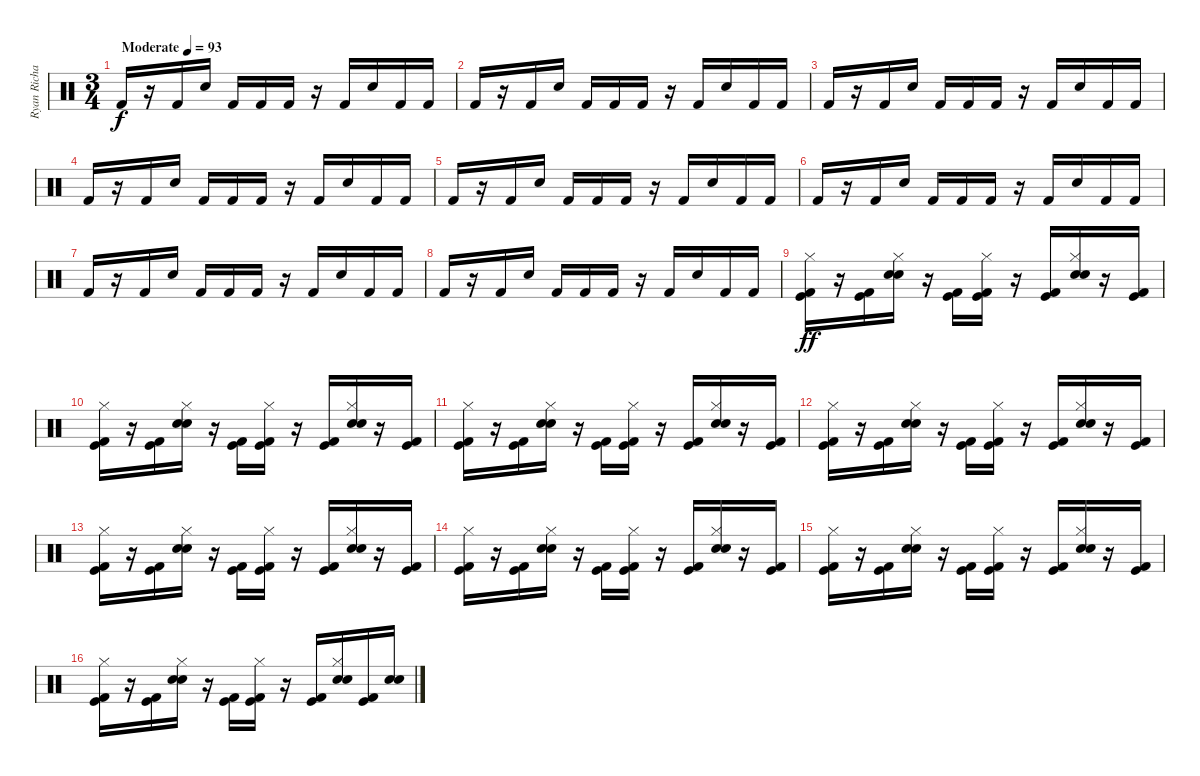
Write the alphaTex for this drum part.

\track ("Ryan Richards" "Ryan Richa") {instrument percussion}
\staff {score}
\articulation defaults
\ts (3 4)
\tempo (93 "Moderate")
\clef neutral
\ks c "Kick (hit) 2".16{dy f volume 9}
r.16 "Kick (hit) 2".16 "Electric Snare (hit)".16 "Kick (hit) 2".16 "Kick (hit) 2".16 "Kick (hit) 2".16 r.16 "Kick (hit) 2".16 "Electric Snare (hit)".16 "Kick (hit) 2".16 "Kick (hit) 2".16 |
"Kick (hit) 2".16 r.16 "Kick (hit) 2".16 "Electric Snare (hit)".16 "Kick (hit) 2".16 "Kick (hit) 2".16 "Kick (hit) 2".16 r.16 "Kick (hit) 2".16 "Electric Snare (hit)".16 "Kick (hit) 2".16 "Kick (hit) 2".16 |
"Kick (hit) 2".16 r.16 "Kick (hit) 2".16 "Electric Snare (hit)".16 "Kick (hit) 2".16 "Kick (hit) 2".16 "Kick (hit) 2".16 r.16 "Kick (hit) 2".16 "Electric Snare (hit)".16 "Kick (hit) 2".16 "Kick (hit) 2".16 |
"Kick (hit) 2".16 r.16 "Kick (hit) 2".16 "Electric Snare (hit)".16 "Kick (hit) 2".16 "Kick (hit) 2".16 "Kick (hit) 2".16 r.16 "Kick (hit) 2".16 "Electric Snare (hit)".16 "Kick (hit) 2".16 "Kick (hit) 2".16 |
"Kick (hit) 2".16 r.16 "Kick (hit) 2".16 "Electric Snare (hit)".16 "Kick (hit) 2".16 "Kick (hit) 2".16 "Kick (hit) 2".16 r.16 "Kick (hit) 2".16 "Electric Snare (hit)".16 "Kick (hit) 2".16 "Kick (hit) 2".16 |
"Kick (hit) 2".16 r.16 "Kick (hit) 2".16 "Electric Snare (hit)".16 "Kick (hit) 2".16 "Kick (hit) 2".16 "Kick (hit) 2".16 r.16 "Kick (hit) 2".16 "Electric Snare (hit)".16 "Kick (hit) 2".16 "Kick (hit) 2".16 |
"Kick (hit) 2".16 r.16 "Kick (hit) 2".16 "Electric Snare (hit)".16 "Kick (hit) 2".16 "Kick (hit) 2".16 "Kick (hit) 2".16 r.16 "Kick (hit) 2".16 "Electric Snare (hit)".16 "Kick (hit) 2".16 "Kick (hit) 2".16 |
"Kick (hit) 2".16 r.16 "Kick (hit) 2".16 "Electric Snare (hit)".16 "Kick (hit) 2".16 "Kick (hit) 2".16 "Kick (hit) 2".16 r.16 "Kick (hit) 2".16 "Electric Snare (hit)".16 "Kick (hit) 2".16 "Kick (hit) 2".16 |
("Kick (hit)" "Hi-Hat (closed)" "Kick (hit) 2").16{dy ff volume 12} r.16 ("Kick (hit)" "Kick (hit) 2").16 ("Snare (hit) 2" "Hi-Hat (closed)" "Electric Snare (hit)").16 r.16 ("Kick (hit)" "Kick (hit) 2").16 ("Kick (hit)" "Hi-Hat (closed)" "Kick (hit) 2").16 r.16 ("Kick (hit)" "Kick (hit) 2").16 ("Snare (hit) 2" "Hi-Hat (closed)" "Electric Snare (hit)").16 r.16 ("Kick (hit)" "Kick (hit) 2").16 |
("Kick (hit)" "Hi-Hat (closed)" "Kick (hit) 2").16 r.16 ("Kick (hit)" "Kick (hit) 2").16 ("Snare (hit) 2" "Hi-Hat (closed)" "Electric Snare (hit)").16 r.16 ("Kick (hit)" "Kick (hit) 2").16 ("Kick (hit)" "Hi-Hat (closed)" "Kick (hit) 2").16 r.16 ("Kick (hit)" "Kick (hit) 2").16 ("Snare (hit) 2" "Hi-Hat (closed)" "Electric Snare (hit)").16 r.16 ("Kick (hit)" "Kick (hit) 2").16 |
("Kick (hit)" "Hi-Hat (closed)" "Kick (hit) 2").16 r.16 ("Kick (hit)" "Kick (hit) 2").16 ("Snare (hit) 2" "Hi-Hat (closed)" "Electric Snare (hit)").16 r.16 ("Kick (hit)" "Kick (hit) 2").16 ("Kick (hit)" "Hi-Hat (closed)" "Kick (hit) 2").16 r.16 ("Kick (hit)" "Kick (hit) 2").16 ("Snare (hit) 2" "Hi-Hat (closed)" "Electric Snare (hit)").16 r.16 ("Kick (hit)" "Kick (hit) 2").16 |
("Kick (hit)" "Hi-Hat (closed)" "Kick (hit) 2").16 r.16 ("Kick (hit)" "Kick (hit) 2").16 ("Snare (hit) 2" "Hi-Hat (closed)" "Electric Snare (hit)").16 r.16 ("Kick (hit)" "Kick (hit) 2").16 ("Kick (hit)" "Hi-Hat (closed)" "Kick (hit) 2").16 r.16 ("Kick (hit)" "Kick (hit) 2").16 ("Snare (hit) 2" "Hi-Hat (closed)" "Electric Snare (hit)").16 r.16 ("Kick (hit)" "Kick (hit) 2").16 |
("Kick (hit)" "Hi-Hat (closed)" "Kick (hit) 2").16 r.16 ("Kick (hit)" "Kick (hit) 2").16 ("Snare (hit) 2" "Hi-Hat (closed)" "Electric Snare (hit)").16 r.16 ("Kick (hit)" "Kick (hit) 2").16 ("Kick (hit)" "Hi-Hat (closed)" "Kick (hit) 2").16 r.16 ("Kick (hit)" "Kick (hit) 2").16 ("Snare (hit) 2" "Hi-Hat (closed)" "Electric Snare (hit)").16 r.16 ("Kick (hit)" "Kick (hit) 2").16 |
("Kick (hit)" "Hi-Hat (closed)" "Kick (hit) 2").16 r.16 ("Kick (hit)" "Kick (hit) 2").16 ("Snare (hit) 2" "Hi-Hat (closed)" "Electric Snare (hit)").16 r.16 ("Kick (hit)" "Kick (hit) 2").16 ("Kick (hit)" "Hi-Hat (closed)" "Kick (hit) 2").16 r.16 ("Kick (hit)" "Kick (hit) 2").16 ("Snare (hit) 2" "Hi-Hat (closed)" "Electric Snare (hit)").16 r.16 ("Kick (hit)" "Kick (hit) 2").16 |
("Kick (hit)" "Hi-Hat (closed)" "Kick (hit) 2").16 r.16 ("Kick (hit)" "Kick (hit) 2").16 ("Snare (hit) 2" "Hi-Hat (closed)" "Electric Snare (hit)").16 r.16 ("Kick (hit)" "Kick (hit) 2").16 ("Kick (hit)" "Hi-Hat (closed)" "Kick (hit) 2").16 r.16 ("Kick (hit)" "Kick (hit) 2").16 ("Snare (hit) 2" "Hi-Hat (closed)" "Electric Snare (hit)").16 r.16 ("Kick (hit)" "Kick (hit) 2").16 |
("Kick (hit)" "Hi-Hat (closed)" "Kick (hit) 2").16 r.16 ("Kick (hit)" "Kick (hit) 2").16 ("Snare (hit) 2" "Hi-Hat (closed)" "Electric Snare (hit)").16 r.16 ("Kick (hit)" "Kick (hit) 2").16 ("Kick (hit)" "Hi-Hat (closed)" "Kick (hit) 2").16 r.16 ("Kick (hit)" "Kick (hit) 2").16 ("Snare (hit) 2" "Hi-Hat (closed)" "Electric Snare (hit)").16 ("Kick (hit)" "Kick (hit) 2").16 ("Snare (hit) 2" "Electric Snare (hit)").16
